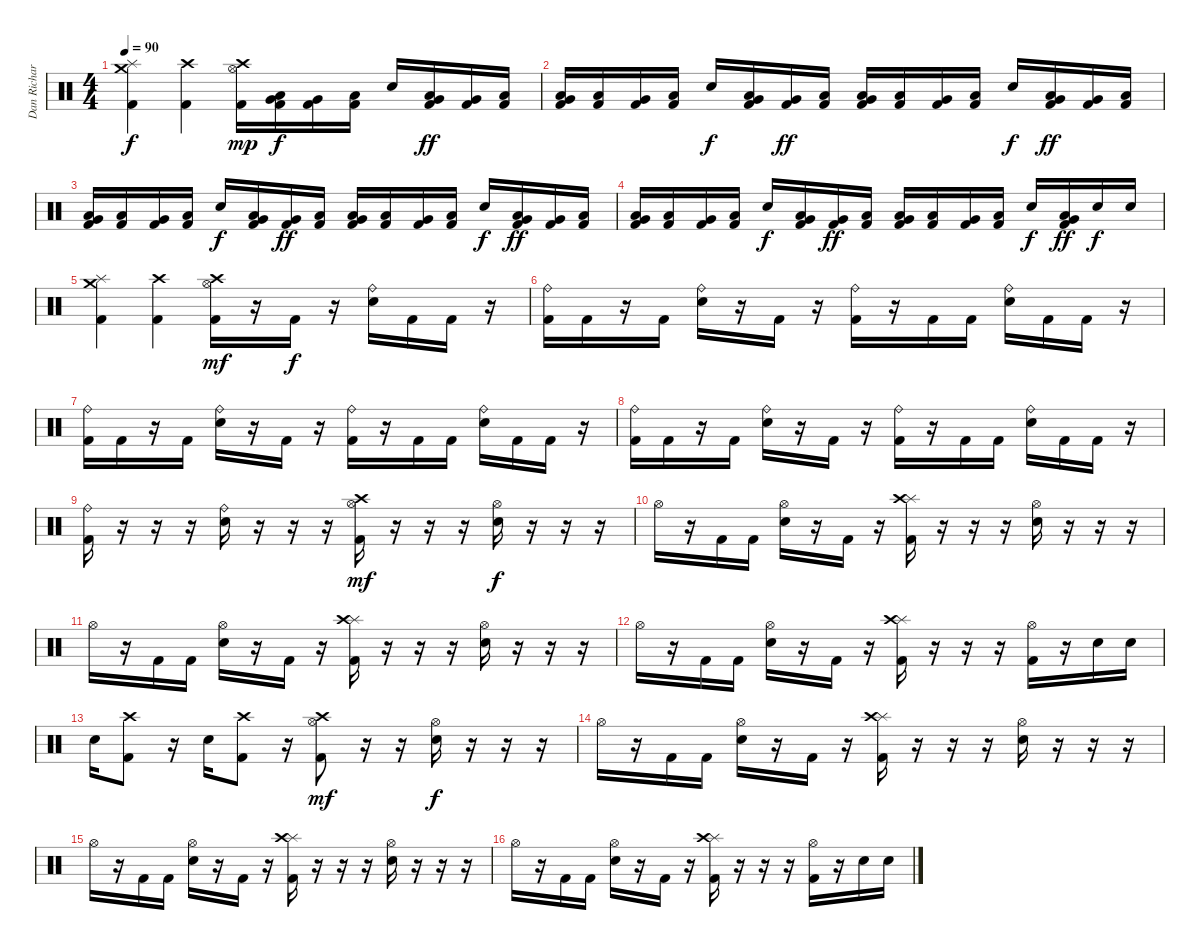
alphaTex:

\track ("Dan Richardson" "Dan Richar") {instrument percussion}
\staff {score}
\articulation defaults
\ts (4 4)
\tempo 90
\clef neutral
\ks c
("Crash medium (hit)" "Splash (hit)" "Kick (hit) 2").4{dy f} ("Crash high (hit)" "Kick (hit) 2").4 ("Crash high (hit)" "Hi-Hat (open)" "Kick (hit) 2").16{dy mp} ("Very Low Tom (hit)" "Low Tom (hit)" "Kick (hit) 2").16{dy f} ("Very Low Tom (hit)" "Kick (hit) 2").16 ("Low Floor Tom (hit)" "Kick (hit) 2").16 "Snare (hit) 2".16 ("Low Floor Tom (hit)" "Very Low Tom (hit)" "Kick (hit) 2").16{dy ff} ("Very Low Tom (hit)" "Kick (hit) 2").16 ("Low Floor Tom (hit)" "Kick (hit) 2").16 |
("Very Low Tom (hit)" "Low Tom (hit)" "Kick (hit) 2").16 ("Low Tom (hit)" "Kick (hit) 2").16 ("Very Low Tom (hit)" "Kick (hit) 2").16 ("Low Floor Tom (hit)" "Kick (hit) 2").16 "Snare (hit) 2".16{dy f} ("Low Floor Tom (hit)" "Very Low Tom (hit)" "Kick (hit) 2").16 ("Very Low Tom (hit)" "Kick (hit) 2").16{dy ff} ("Low Floor Tom (hit)" "Kick (hit) 2").16 ("Very Low Tom (hit)" "Low Tom (hit)" "Kick (hit) 2").16 ("Low Tom (hit)" "Kick (hit) 2").16 ("Very Low Tom (hit)" "Kick (hit) 2").16 ("Low Floor Tom (hit)" "Kick (hit) 2").16 "Snare (hit) 2".16{dy f} ("Low Floor Tom (hit)" "Very Low Tom (hit)" "Kick (hit) 2").16{dy ff} ("Very Low Tom (hit)" "Kick (hit) 2").16 ("Low Floor Tom (hit)" "Kick (hit) 2").16 |
("Very Low Tom (hit)" "Low Tom (hit)" "Kick (hit) 2").16 ("Low Tom (hit)" "Kick (hit) 2").16 ("Very Low Tom (hit)" "Kick (hit) 2").16 ("Low Floor Tom (hit)" "Kick (hit) 2").16 "Snare (hit) 2".16{dy f} ("Low Floor Tom (hit)" "Very Low Tom (hit)" "Kick (hit) 2").16 ("Very Low Tom (hit)" "Kick (hit) 2").16{dy ff} ("Low Floor Tom (hit)" "Kick (hit) 2").16 ("Very Low Tom (hit)" "Low Tom (hit)" "Kick (hit) 2").16 ("Low Tom (hit)" "Kick (hit) 2").16 ("Very Low Tom (hit)" "Kick (hit) 2").16 ("Low Floor Tom (hit)" "Kick (hit) 2").16 "Snare (hit) 2".16{dy f} ("Low Floor Tom (hit)" "Very Low Tom (hit)" "Kick (hit) 2").16{dy ff} ("Very Low Tom (hit)" "Kick (hit) 2").16 ("Low Floor Tom (hit)" "Kick (hit) 2").16 |
("Very Low Tom (hit)" "Low Tom (hit)" "Kick (hit) 2").16 ("Low Tom (hit)" "Kick (hit) 2").16 ("Very Low Tom (hit)" "Kick (hit) 2").16 ("Low Floor Tom (hit)" "Kick (hit) 2").16 "Snare (hit) 2".16{dy f} ("Low Floor Tom (hit)" "Very Low Tom (hit)" "Kick (hit) 2").16 ("Very Low Tom (hit)" "Kick (hit) 2").16{dy ff} ("Low Floor Tom (hit)" "Kick (hit) 2").16 ("Very Low Tom (hit)" "Low Tom (hit)" "Kick (hit) 2").16 ("Low Tom (hit)" "Kick (hit) 2").16 ("Very Low Tom (hit)" "Kick (hit) 2").16 ("Low Floor Tom (hit)" "Kick (hit) 2").16 "Snare (hit) 2".16{dy f} ("Low Floor Tom (hit)" "Very Low Tom (hit)" "Kick (hit) 2").16{dy ff} "Snare (hit) 2".16{dy f} "Snare (hit) 2".16 |
("Crash medium (hit)" "Splash (hit)" "Kick (hit) 2").4 ("Crash high (hit)" "Kick (hit) 2").4 ("Crash high (hit)" "Hi-Hat (open)" "Kick (hit) 2").16{dy mf} r.16 "Kick (hit) 2".16{dy f} r.16 ("Ride (bell)" "Snare (hit) 2").16 "Kick (hit) 2".16 "Kick (hit) 2".16 r.16 |
("Ride (bell)" "Kick (hit) 2").16 "Kick (hit) 2".16 r.16 "Kick (hit) 2".16 ("Ride (bell)" "Snare (hit) 2").16 r.16 "Kick (hit) 2".16 r.16 ("Ride (bell)" "Kick (hit) 2").16 r.16 "Kick (hit) 2".16 "Kick (hit) 2".16 ("Ride (bell)" "Snare (hit) 2").16 "Kick (hit) 2".16 "Kick (hit) 2".16 r.16 |
("Ride (bell)" "Kick (hit) 2").16 "Kick (hit) 2".16 r.16 "Kick (hit) 2".16 ("Ride (bell)" "Snare (hit) 2").16 r.16 "Kick (hit) 2".16 r.16 ("Ride (bell)" "Kick (hit) 2").16 r.16 "Kick (hit) 2".16 "Kick (hit) 2".16 ("Ride (bell)" "Snare (hit) 2").16 "Kick (hit) 2".16 "Kick (hit) 2".16 r.16 |
("Ride (bell)" "Kick (hit) 2").16 "Kick (hit) 2".16 r.16 "Kick (hit) 2".16 ("Ride (bell)" "Snare (hit) 2").16 r.16 "Kick (hit) 2".16 r.16 ("Ride (bell)" "Kick (hit) 2").16 r.16 "Kick (hit) 2".16 "Kick (hit) 2".16 ("Ride (bell)" "Snare (hit) 2").16 "Kick (hit) 2".16 "Kick (hit) 2".16 r.16 |
("Ride (bell)" "Kick (hit) 2").16 r.16 r.16 r.16 ("Ride (bell)" "Snare (hit) 2").16 r.16 r.16 r.16 ("Hi-Hat (open)" "Crash high (hit)" "Kick (hit) 2").16{dy mf} r.16 r.16 r.16 ("Hi-Hat (open)" "Snare (hit) 2").16{dy f} r.16 r.16 r.16 |
"Hi-Hat (open)".16 r.16 "Kick (hit) 2".16 "Kick (hit) 2".16 ("Hi-Hat (open)" "Snare (hit) 2").16 r.16 "Kick (hit) 2".16 r.16 ("Splash (hit)" "Crash high (hit)" "Kick (hit) 2").16 r.16 r.16 r.16 ("Hi-Hat (open)" "Snare (hit) 2").16 r.16 r.16 r.16 |
"Hi-Hat (open)".16 r.16 "Kick (hit) 2".16 "Kick (hit) 2".16 ("Hi-Hat (open)" "Snare (hit) 2").16 r.16 "Kick (hit) 2".16 r.16 ("Splash (hit)" "Crash high (hit)" "Kick (hit) 2").16 r.16 r.16 r.16 ("Hi-Hat (open)" "Snare (hit) 2").16 r.16 r.16 r.16 |
"Hi-Hat (open)".16 r.16 "Kick (hit) 2".16 "Kick (hit) 2".16 ("Hi-Hat (open)" "Snare (hit) 2").16 r.16 "Kick (hit) 2".16 r.16 ("Splash (hit)" "Crash high (hit)" "Kick (hit) 2").16 r.16 r.16 r.16 ("Hi-Hat (open)" "Kick (hit) 2").16 r.16 "Snare (hit) 2".16 "Snare (hit) 2".16 |
"Snare (hit) 2".16 ("Crash high (hit)" "Kick (hit) 2").8 r.16 "Snare (hit) 2".16 ("Crash high (hit)" "Kick (hit) 2").8 r.16 ("Crash high (hit)" "Hi-Hat (open)" "Kick (hit) 2").8{dy mf} r.16 r.16 ("Hi-Hat (open)" "Snare (hit) 2").16{dy f} r.16 r.16 r.16 |
"Hi-Hat (open)".16 r.16 "Kick (hit) 2".16 "Kick (hit) 2".16 ("Hi-Hat (open)" "Snare (hit) 2").16 r.16 "Kick (hit) 2".16 r.16 ("Splash (hit)" "Crash high (hit)" "Kick (hit) 2").16 r.16 r.16 r.16 ("Hi-Hat (open)" "Snare (hit) 2").16 r.16 r.16 r.16 |
"Hi-Hat (open)".16 r.16 "Kick (hit) 2".16 "Kick (hit) 2".16 ("Hi-Hat (open)" "Snare (hit) 2").16 r.16 "Kick (hit) 2".16 r.16 ("Splash (hit)" "Crash high (hit)" "Kick (hit) 2").16 r.16 r.16 r.16 ("Hi-Hat (open)" "Snare (hit) 2").16 r.16 r.16 r.16 |
"Hi-Hat (open)".16 r.16 "Kick (hit) 2".16 "Kick (hit) 2".16 ("Hi-Hat (open)" "Snare (hit) 2").16 r.16 "Kick (hit) 2".16 r.16 ("Splash (hit)" "Crash high (hit)" "Kick (hit) 2").16 r.16 r.16 r.16 ("Hi-Hat (open)" "Kick (hit) 2").16 r.16 "Snare (hit) 2".16 "Snare (hit) 2".16
